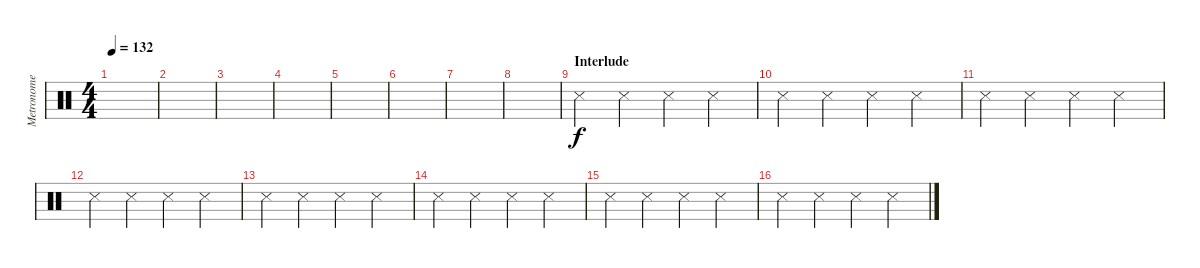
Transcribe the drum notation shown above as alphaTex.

\track ("Metronome" "Metronome") {instrument percussion}
\staff {score}
\articulation defaults
\ts (4 4)
\tempo 132
\clef neutral
\ks c
|
|
|
|
|
|
|
|
\section ("" "Interlude")
"Metronome (hit)".4 "Metronome (hit)".4 "Metronome (hit)".4 "Metronome (hit)".4 |
"Metronome (hit)".4 "Metronome (hit)".4 "Metronome (hit)".4 "Metronome (hit)".4 |
"Metronome (hit)".4 "Metronome (hit)".4 "Metronome (hit)".4 "Metronome (hit)".4 |
"Metronome (hit)".4 "Metronome (hit)".4 "Metronome (hit)".4 "Metronome (hit)".4 |
"Metronome (hit)".4 "Metronome (hit)".4 "Metronome (hit)".4 "Metronome (hit)".4 |
"Metronome (hit)".4 "Metronome (hit)".4 "Metronome (hit)".4 "Metronome (hit)".4 |
"Metronome (hit)".4 "Metronome (hit)".4 "Metronome (hit)".4 "Metronome (hit)".4 |
"Metronome (hit)".4 "Metronome (hit)".4 "Metronome (hit)".4 "Metronome (hit)".4
